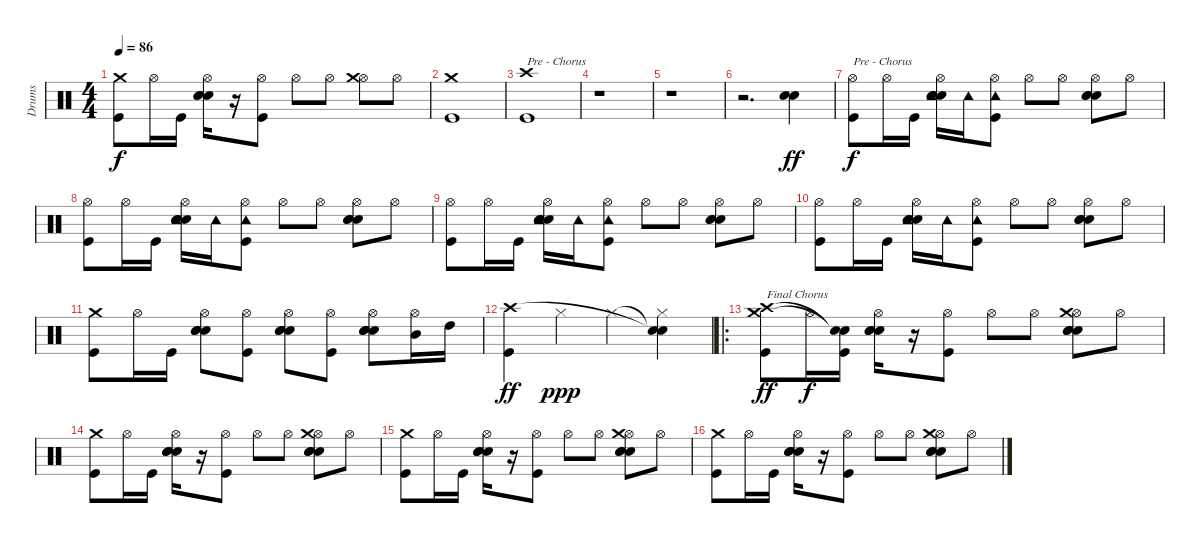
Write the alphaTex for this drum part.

\track ("Drums" "Drums") {instrument percussion}
\staff {score}
\articulation defaults
\ts (4 4)
\tempo 86
\clef neutral
\ks c
("Kick (hit)" "Crash medium (hit)").8{dy f} "Hi-Hat (open)".16 "Kick (hit)".16 ("Electric Snare (hit)" "Hi-Hat (open)" "Electric Snare (hit)" "Electric Snare (hit)").16 r.16 ("Kick (hit)" "Hi-Hat (open)").8 "Hi-Hat (open)".8 "Hi-Hat (open)".8 ("Hi-Hat (open)" "Crash medium (hit)").8 "Hi-Hat (open)".8 |
("Kick (hit)" "Crash medium (hit)").1 |
("Crash high (hit)" "Kick (hit)").1{txt "Pre - Chorus"} |
r.1 |
r.1 |
r.2{d} ("Electric Snare (hit)" "Electric Snare (hit)").4{dy ff} |
("Kick (hit)" "Hi-Hat (open)").8{txt "Pre - Chorus" dy f} "Hi-Hat (open)".16 "Kick (hit)".16 ("Electric Snare (hit)" "Hi-Hat (open)" "Tambourine (hit)" "Electric Snare (hit)" "Electric Snare (hit)").16 "Tambourine (hit)".16 ("Kick (hit)" "Hi-Hat (open)" "Tambourine (hit)").8 "Hi-Hat (open)".8 "Hi-Hat (open)".8 ("Electric Snare (hit)" "Hi-Hat (open)" "Electric Snare (hit)" "Electric Snare (hit)").8 "Hi-Hat (open)".8 |
("Kick (hit)" "Hi-Hat (open)").8 "Hi-Hat (open)".16 "Kick (hit)".16 ("Electric Snare (hit)" "Hi-Hat (open)" "Tambourine (hit)" "Electric Snare (hit)" "Electric Snare (hit)").16 "Tambourine (hit)".16 ("Kick (hit)" "Hi-Hat (open)" "Tambourine (hit)").8 "Hi-Hat (open)".8 "Hi-Hat (open)".8 ("Electric Snare (hit)" "Hi-Hat (open)" "Electric Snare (hit)" "Electric Snare (hit)").8 "Hi-Hat (open)".8 |
("Kick (hit)" "Hi-Hat (open)").8 "Hi-Hat (open)".16 "Kick (hit)".16 ("Electric Snare (hit)" "Hi-Hat (open)" "Tambourine (hit)" "Electric Snare (hit)" "Electric Snare (hit)").16 "Tambourine (hit)".16 ("Kick (hit)" "Hi-Hat (open)" "Tambourine (hit)").8 "Hi-Hat (open)".8 "Hi-Hat (open)".8 ("Electric Snare (hit)" "Hi-Hat (open)" "Electric Snare (hit)" "Electric Snare (hit)").8 "Hi-Hat (open)".8 |
("Kick (hit)" "Hi-Hat (open)").8 "Hi-Hat (open)".16 "Kick (hit)".16 ("Electric Snare (hit)" "Hi-Hat (open)" "Tambourine (hit)" "Electric Snare (hit)" "Electric Snare (hit)").16 "Tambourine (hit)".16 ("Kick (hit)" "Hi-Hat (open)" "Tambourine (hit)").8 "Hi-Hat (open)".8 "Hi-Hat (open)".8 ("Electric Snare (hit)" "Hi-Hat (open)" "Electric Snare (hit)" "Electric Snare (hit)").8 "Hi-Hat (open)".8 |
("Crash medium (hit)" "Kick (hit)").8 "Hi-Hat (open)".16 "Kick (hit)".16 ("Hi-Hat (open)" "Electric Snare (hit)" "Electric Snare (hit)" "Electric Snare (hit)").8 ("Hi-Hat (open)" "Kick (hit)").8 ("Hi-Hat (open)" "Electric Snare (hit)" "Electric Snare (hit)" "Electric Snare (hit)").8 ("Hi-Hat (open)" "Kick (hit)").8 ("Hi-Hat (open)" "Electric Snare (hit)" "Electric Snare (hit)" "Electric Snare (hit)").8 ("Hi-Hat (open)" "Mid Tom (hit)").16 "High Tom (hit)".16 |
("Kick (hit)" "Crash high (hit)").4{dy ff} "Hi-Hat (closed)".4{dy ppp} "Hi-Hat (closed)".4 ("Snare (hit)"{t} "Snare (hit)"{t} "Hi-Hat (closed)").4 |
\ro
("Kick (hit)" "Crash medium (hit)" "Crash high (hit)").8{txt "Final Chorus" dy ff} "Hi-Hat (open)".16{dy f} ("Kick (hit)" "Snare (hit)"{t} "Snare (hit)"{t}).16 ("Electric Snare (hit)" "Hi-Hat (open)" "Electric Snare (hit)" "Electric Snare (hit)").16 r.16 ("Kick (hit)" "Hi-Hat (open)").8 "Hi-Hat (open)".8 "Hi-Hat (open)".8 ("Electric Snare (hit)" "Hi-Hat (open)" "Electric Snare (hit)" "Electric Snare (hit)" "Crash medium (hit)").8 "Hi-Hat (open)".8 |
("Kick (hit)" "Crash medium (hit)").8 "Hi-Hat (open)".16 "Kick (hit)".16 ("Electric Snare (hit)" "Hi-Hat (open)" "Electric Snare (hit)" "Electric Snare (hit)").16 r.16 ("Kick (hit)" "Hi-Hat (open)").8 "Hi-Hat (open)".8 "Hi-Hat (open)".8 ("Electric Snare (hit)" "Hi-Hat (open)" "Electric Snare (hit)" "Electric Snare (hit)" "Crash medium (hit)").8 "Hi-Hat (open)".8 |
("Kick (hit)" "Crash medium (hit)").8 "Hi-Hat (open)".16 "Kick (hit)".16 ("Electric Snare (hit)" "Hi-Hat (open)" "Electric Snare (hit)" "Electric Snare (hit)").16 r.16 ("Kick (hit)" "Hi-Hat (open)").8 "Hi-Hat (open)".8 "Hi-Hat (open)".8 ("Electric Snare (hit)" "Hi-Hat (open)" "Electric Snare (hit)" "Electric Snare (hit)" "Crash medium (hit)").8 "Hi-Hat (open)".8 |
("Kick (hit)" "Crash medium (hit)").8 "Hi-Hat (open)".16 "Kick (hit)".16 ("Electric Snare (hit)" "Hi-Hat (open)" "Electric Snare (hit)" "Electric Snare (hit)").16 r.16 ("Kick (hit)" "Hi-Hat (open)").8 "Hi-Hat (open)".8 "Hi-Hat (open)".8 ("Electric Snare (hit)" "Hi-Hat (open)" "Electric Snare (hit)" "Electric Snare (hit)" "Crash medium (hit)").8 "Hi-Hat (open)".8
